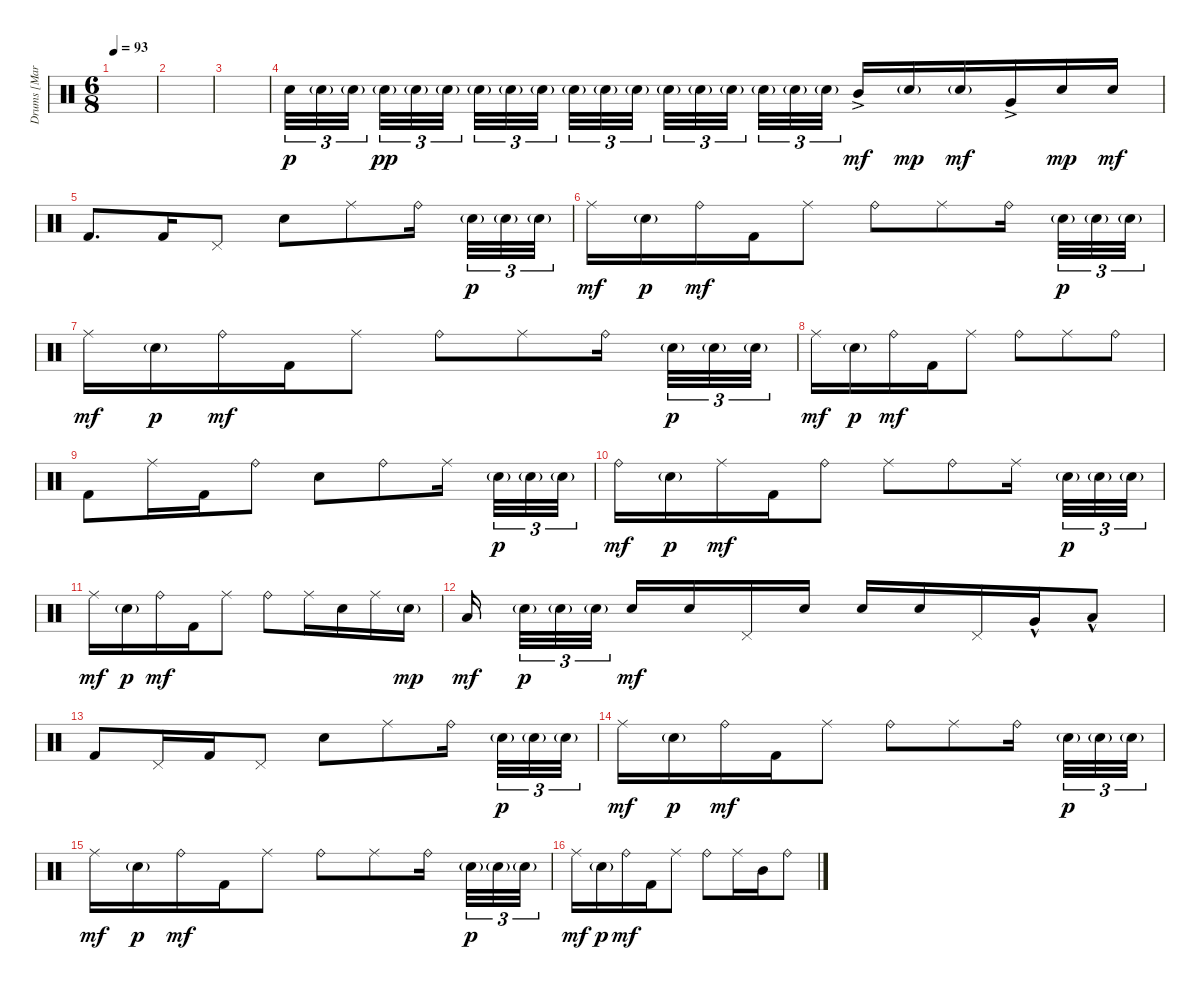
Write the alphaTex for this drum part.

\track ("Drums [Martin Lopez]" "Drums [Mar") {instrument percussion}
\staff {score}
\articulation defaults
\ts (6 8)
\tempo 93
\clef neutral
\ks c
|
|
|
"Snare (hit) 2".32{tu (3 2) dy p} "Snare (hit) 2"{g}.32{tu (3 2)} "Snare (hit) 2"{g}.32{tu (3 2) beam splitsecondary} "Snare (hit) 2"{g}.32{tu (3 2) dy pp} "Snare (hit) 2"{g}.32{tu (3 2)} "Snare (hit) 2"{g}.32{tu (3 2) beam splitsecondary} "Snare (hit) 2"{g}.32{tu (3 2)} "Snare (hit) 2"{g}.32{tu (3 2)} "Snare (hit) 2"{g}.32{tu (3 2) beam splitsecondary} "Snare (hit) 2"{g}.32{tu (3 2)} "Snare (hit) 2"{g}.32{tu (3 2)} "Snare (hit) 2"{g}.32{tu (3 2) beam splitsecondary} "Snare (hit) 2"{g}.32{tu (3 2)} "Snare (hit) 2"{g}.32{tu (3 2)} "Snare (hit) 2"{g}.32{tu (3 2) beam splitsecondary} "Snare (hit) 2"{g}.32{tu (3 2)} "Snare (hit) 2"{g}.32{tu (3 2)} "Snare (hit) 2"{g}.32{tu (3 2)} "Mid Tom (hit)"{ac}.16{dy mf} "Snare (hit) 2"{g}.16{dy mp} "Snare (hit) 2"{g}.16{dy mf} "Very Low Tom (hit)"{ac}.16 "Snare (hit) 2".16{dy mp} "Snare (hit) 2".16{dy mf} |
"Kick (hit) 2".8{d} "Kick (hit) 2".16 "Pedal Hi-Hat (hit)".8 "Snare (hit) 2".8 "Ride (middle)".8 "Ride (bell)".16{beam splitsecondary} "Snare (hit) 2"{g}.32{tu (3 2) dy p} "Snare (hit) 2"{g}.32{tu (3 2)} "Snare (hit) 2"{g}.32{tu (3 2)} |
"Ride (middle)".16{dy mf} "Snare (hit) 2"{g}.16{dy p} "Ride (bell)".16{dy mf} "Kick (hit) 2".16 "Ride (middle)".8 "Ride (bell)".8 "Ride (middle)".8 "Ride (bell)".16{beam splitsecondary} "Snare (hit) 2"{g}.32{tu (3 2) dy p} "Snare (hit) 2"{g}.32{tu (3 2)} "Snare (hit) 2"{g}.32{tu (3 2)} |
"Ride (middle)".16{dy mf} "Snare (hit) 2"{g}.16{dy p} "Ride (bell)".16{dy mf} "Kick (hit) 2".16 "Ride (middle)".8 "Ride (bell)".8 "Ride (middle)".8 "Ride (bell)".16{beam splitsecondary} "Snare (hit) 2"{g}.32{tu (3 2) dy p} "Snare (hit) 2"{g}.32{tu (3 2)} "Snare (hit) 2"{g}.32{tu (3 2)} |
"Ride (middle)".16{dy mf} "Snare (hit) 2"{g}.16{dy p} "Ride (bell)".16{dy mf} "Kick (hit) 2".16 "Ride (middle)".8 "Ride (bell)".8 "Ride (middle)".8 "Ride (bell)".8 |
"Kick (hit) 2".8 "Ride (middle)".16 "Kick (hit) 2".16 "Ride (bell)".8 "Snare (hit) 2".8 "Ride (bell)".8 "Ride (middle)".16{beam splitsecondary} "Snare (hit) 2"{g}.32{tu (3 2) dy p} "Snare (hit) 2"{g}.32{tu (3 2)} "Snare (hit) 2"{g}.32{tu (3 2)} |
"Ride (bell)".16{dy mf} "Snare (hit) 2"{g}.16{dy p} "Ride (middle)".16{dy mf} "Kick (hit) 2".16 "Ride (bell)".8 "Ride (middle)".8 "Ride (bell)".8 "Ride (middle)".16{beam splitsecondary} "Snare (hit) 2"{g}.32{tu (3 2) dy p} "Snare (hit) 2"{g}.32{tu (3 2)} "Snare (hit) 2"{g}.32{tu (3 2)} |
"Ride (middle)".16{dy mf} "Snare (hit) 2"{g}.16{dy p} "Ride (bell)".16{dy mf} "Kick (hit) 2".16 "Ride (middle)".8 "Ride (bell)".8 "Ride (middle)".16 "Snare (hit) 2".16 "Ride (middle)".16 "Snare (hit) 2"{g}.16{dy mp} |
"Low Tom (hit)".16{dy mf beam splitsecondary} "Snare (hit) 2"{g}.32{tu (3 2) dy p} "Snare (hit) 2"{g}.32{tu (3 2)} "Snare (hit) 2"{g}.32{tu (3 2) beam splitsecondary} "Snare (hit) 2".16{dy mf} "Snare (hit) 2".16 "Pedal Hi-Hat (hit)".16 "Snare (hit) 2".16 "Snare (hit) 2".16 "Snare (hit) 2".16 "Pedal Hi-Hat (hit)".16 "Very Low Tom (hit)"{hac}.16 "Low Floor Tom (hit)"{hac}.8 |
"Kick (hit) 2".8 "Pedal Hi-Hat (hit)".16 "Kick (hit) 2".16 "Pedal Hi-Hat (hit)".8 "Snare (hit) 2".8 "Ride (middle)".8 "Ride (bell)".16{beam splitsecondary} "Snare (hit) 2"{g}.32{tu (3 2) dy p} "Snare (hit) 2"{g}.32{tu (3 2)} "Snare (hit) 2"{g}.32{tu (3 2)} |
"Ride (middle)".16{dy mf} "Snare (hit) 2"{g}.16{dy p} "Ride (bell)".16{dy mf} "Kick (hit) 2".16 "Ride (middle)".8 "Ride (bell)".8 "Ride (middle)".8 "Ride (bell)".16{beam splitsecondary} "Snare (hit) 2"{g}.32{tu (3 2) dy p} "Snare (hit) 2"{g}.32{tu (3 2)} "Snare (hit) 2"{g}.32{tu (3 2)} |
"Ride (middle)".16{dy mf} "Snare (hit) 2"{g}.16{dy p} "Ride (bell)".16{dy mf} "Kick (hit) 2".16 "Ride (middle)".8 "Ride (bell)".8 "Ride (middle)".8 "Ride (bell)".16{beam splitsecondary} "Snare (hit) 2"{g}.32{tu (3 2) dy p} "Snare (hit) 2"{g}.32{tu (3 2)} "Snare (hit) 2"{g}.32{tu (3 2)} |
"Ride (middle)".16{dy mf} "Snare (hit) 2"{g}.16{dy p} "Ride (bell)".16{dy mf} "Kick (hit) 2".16 "Ride (middle)".8 "Ride (bell)".8 "Ride (middle)".16 "Mid Tom (hit)".16 "Ride (bell)".8
